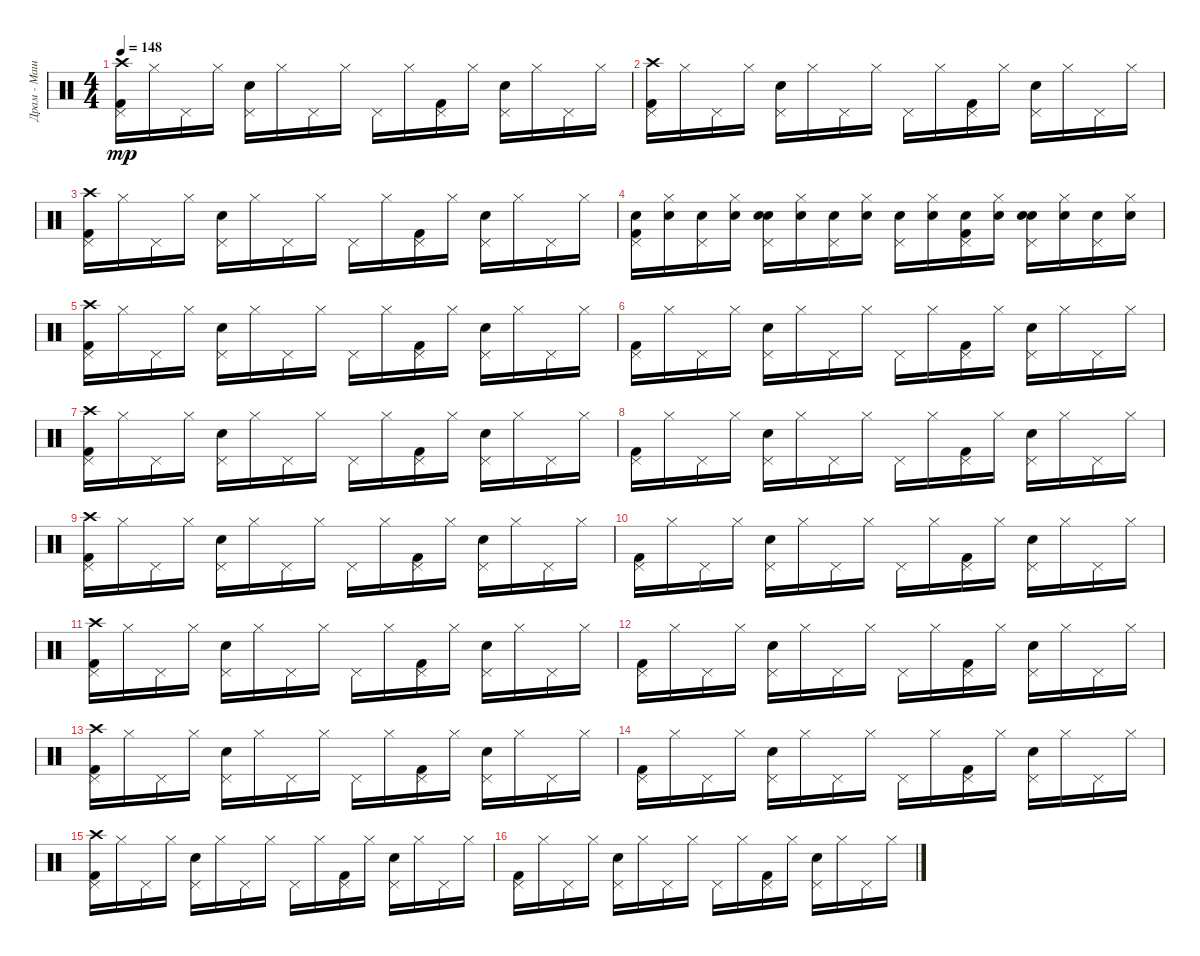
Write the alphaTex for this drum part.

\track ("Драм - Машина 2" "Драм - Маш") {instrument percussion}
\staff {score}
\articulation defaults
\ts (4 4)
\tempo 148
\clef neutral
\ks c
("Kick (hit) 2" "Crash high (hit)" "Pedal Hi-Hat (hit)").16{dy mp} "Hi-Hat (closed)".16 "Pedal Hi-Hat (hit)".16 "Hi-Hat (closed)".16 ("Snare (hit) 2" "Pedal Hi-Hat (hit)").16 "Hi-Hat (closed)".16 "Pedal Hi-Hat (hit)".16 "Hi-Hat (closed)".16 "Pedal Hi-Hat (hit)".16 "Hi-Hat (closed)".16 ("Kick (hit) 2" "Pedal Hi-Hat (hit)").16 "Hi-Hat (closed)".16 ("Snare (hit) 2" "Pedal Hi-Hat (hit)").16 "Hi-Hat (closed)".16 "Pedal Hi-Hat (hit)".16 "Hi-Hat (closed)".16 |
("Kick (hit) 2" "Crash high (hit)" "Pedal Hi-Hat (hit)").16 "Hi-Hat (closed)".16 "Pedal Hi-Hat (hit)".16 "Hi-Hat (closed)".16 ("Snare (hit) 2" "Pedal Hi-Hat (hit)").16 "Hi-Hat (closed)".16 "Pedal Hi-Hat (hit)".16 "Hi-Hat (closed)".16 "Pedal Hi-Hat (hit)".16 "Hi-Hat (closed)".16 ("Kick (hit) 2" "Pedal Hi-Hat (hit)").16 "Hi-Hat (closed)".16 ("Snare (hit) 2" "Pedal Hi-Hat (hit)").16 "Hi-Hat (closed)".16 "Pedal Hi-Hat (hit)".16 "Hi-Hat (closed)".16 |
("Kick (hit) 2" "Crash high (hit)" "Pedal Hi-Hat (hit)").16 "Hi-Hat (closed)".16 "Pedal Hi-Hat (hit)".16 "Hi-Hat (closed)".16 ("Snare (hit) 2" "Pedal Hi-Hat (hit)").16 "Hi-Hat (closed)".16 "Pedal Hi-Hat (hit)".16 "Hi-Hat (closed)".16 "Pedal Hi-Hat (hit)".16 "Hi-Hat (closed)".16 ("Kick (hit) 2" "Pedal Hi-Hat (hit)").16 "Hi-Hat (closed)".16 ("Snare (hit) 2" "Pedal Hi-Hat (hit)").16 "Hi-Hat (closed)".16 "Pedal Hi-Hat (hit)".16 "Hi-Hat (closed)".16 |
("Kick (hit) 2" "Snare (hit) 2" "Pedal Hi-Hat (hit)").16 ("Snare (hit) 2" "Hi-Hat (closed)").16 ("Snare (hit) 2" "Pedal Hi-Hat (hit)").16 ("Snare (hit) 2" "Hi-Hat (closed)").16 ("Snare (hit) 2" "Snare (hit) 2" "Pedal Hi-Hat (hit)").16 ("Snare (hit) 2" "Hi-Hat (closed)").16 ("Snare (hit) 2" "Pedal Hi-Hat (hit)").16 ("Snare (hit) 2" "Hi-Hat (closed)").16 ("Snare (hit) 2" "Pedal Hi-Hat (hit)").16 ("Snare (hit) 2" "Hi-Hat (closed)").16 ("Kick (hit) 2" "Snare (hit) 2" "Pedal Hi-Hat (hit)").16 ("Snare (hit) 2" "Hi-Hat (closed)").16 ("Snare (hit) 2" "Snare (hit) 2" "Pedal Hi-Hat (hit)").16 ("Snare (hit) 2" "Hi-Hat (closed)").16 ("Snare (hit) 2" "Pedal Hi-Hat (hit)").16 ("Snare (hit) 2" "Hi-Hat (closed)").16 |
("Kick (hit) 2" "Crash high (hit)" "Pedal Hi-Hat (hit)").16 "Hi-Hat (closed)".16 "Pedal Hi-Hat (hit)".16 "Hi-Hat (closed)".16 ("Snare (hit) 2" "Pedal Hi-Hat (hit)").16 "Hi-Hat (closed)".16 "Pedal Hi-Hat (hit)".16 "Hi-Hat (closed)".16 "Pedal Hi-Hat (hit)".16 "Hi-Hat (closed)".16 ("Kick (hit) 2" "Pedal Hi-Hat (hit)").16 "Hi-Hat (closed)".16 ("Snare (hit) 2" "Pedal Hi-Hat (hit)").16 "Hi-Hat (closed)".16 "Pedal Hi-Hat (hit)".16 "Hi-Hat (closed)".16 |
("Kick (hit) 2" "Pedal Hi-Hat (hit)").16 "Hi-Hat (closed)".16 "Pedal Hi-Hat (hit)".16 "Hi-Hat (closed)".16 ("Snare (hit) 2" "Pedal Hi-Hat (hit)").16 "Hi-Hat (closed)".16 "Pedal Hi-Hat (hit)".16 "Hi-Hat (closed)".16 "Pedal Hi-Hat (hit)".16 "Hi-Hat (closed)".16 ("Kick (hit) 2" "Pedal Hi-Hat (hit)").16 "Hi-Hat (closed)".16 ("Snare (hit) 2" "Pedal Hi-Hat (hit)").16 "Hi-Hat (closed)".16 "Pedal Hi-Hat (hit)".16 "Hi-Hat (closed)".16 |
("Kick (hit) 2" "Crash high (hit)" "Pedal Hi-Hat (hit)").16 "Hi-Hat (closed)".16 "Pedal Hi-Hat (hit)".16 "Hi-Hat (closed)".16 ("Snare (hit) 2" "Pedal Hi-Hat (hit)").16 "Hi-Hat (closed)".16 "Pedal Hi-Hat (hit)".16 "Hi-Hat (closed)".16 "Pedal Hi-Hat (hit)".16 "Hi-Hat (closed)".16 ("Kick (hit) 2" "Pedal Hi-Hat (hit)").16 "Hi-Hat (closed)".16 ("Snare (hit) 2" "Pedal Hi-Hat (hit)").16 "Hi-Hat (closed)".16 "Pedal Hi-Hat (hit)".16 "Hi-Hat (closed)".16 |
("Kick (hit) 2" "Pedal Hi-Hat (hit)").16 "Hi-Hat (closed)".16 "Pedal Hi-Hat (hit)".16 "Hi-Hat (closed)".16 ("Snare (hit) 2" "Pedal Hi-Hat (hit)").16 "Hi-Hat (closed)".16 "Pedal Hi-Hat (hit)".16 "Hi-Hat (closed)".16 "Pedal Hi-Hat (hit)".16 "Hi-Hat (closed)".16 ("Kick (hit) 2" "Pedal Hi-Hat (hit)").16 "Hi-Hat (closed)".16 ("Snare (hit) 2" "Pedal Hi-Hat (hit)").16 "Hi-Hat (closed)".16 "Pedal Hi-Hat (hit)".16 "Hi-Hat (closed)".16 |
("Crash high (hit)" "Kick (hit) 2" "Pedal Hi-Hat (hit)").16 "Hi-Hat (closed)".16 "Pedal Hi-Hat (hit)".16 "Hi-Hat (closed)".16 ("Snare (hit) 2" "Pedal Hi-Hat (hit)").16 "Hi-Hat (closed)".16 "Pedal Hi-Hat (hit)".16 "Hi-Hat (closed)".16 "Pedal Hi-Hat (hit)".16 "Hi-Hat (closed)".16 ("Kick (hit) 2" "Pedal Hi-Hat (hit)").16 "Hi-Hat (closed)".16 ("Snare (hit) 2" "Pedal Hi-Hat (hit)").16 "Hi-Hat (closed)".16 "Pedal Hi-Hat (hit)".16 "Hi-Hat (closed)".16 |
("Kick (hit) 2" "Pedal Hi-Hat (hit)").16 "Hi-Hat (closed)".16 "Pedal Hi-Hat (hit)".16 "Hi-Hat (closed)".16 ("Snare (hit) 2" "Pedal Hi-Hat (hit)").16 "Hi-Hat (closed)".16 "Pedal Hi-Hat (hit)".16 "Hi-Hat (closed)".16 "Pedal Hi-Hat (hit)".16 "Hi-Hat (closed)".16 ("Kick (hit) 2" "Pedal Hi-Hat (hit)").16 "Hi-Hat (closed)".16 ("Snare (hit) 2" "Pedal Hi-Hat (hit)").16 "Hi-Hat (closed)".16 "Pedal Hi-Hat (hit)".16 "Hi-Hat (closed)".16 |
("Crash high (hit)" "Kick (hit) 2" "Pedal Hi-Hat (hit)").16 "Hi-Hat (closed)".16 "Pedal Hi-Hat (hit)".16 "Hi-Hat (closed)".16 ("Snare (hit) 2" "Pedal Hi-Hat (hit)").16 "Hi-Hat (closed)".16 "Pedal Hi-Hat (hit)".16 "Hi-Hat (closed)".16 "Pedal Hi-Hat (hit)".16 "Hi-Hat (closed)".16 ("Kick (hit) 2" "Pedal Hi-Hat (hit)").16 "Hi-Hat (closed)".16 ("Snare (hit) 2" "Pedal Hi-Hat (hit)").16 "Hi-Hat (closed)".16 "Pedal Hi-Hat (hit)".16 "Hi-Hat (closed)".16 |
("Kick (hit) 2" "Pedal Hi-Hat (hit)").16 "Hi-Hat (closed)".16 "Pedal Hi-Hat (hit)".16 "Hi-Hat (closed)".16 ("Snare (hit) 2" "Pedal Hi-Hat (hit)").16 "Hi-Hat (closed)".16 "Pedal Hi-Hat (hit)".16 "Hi-Hat (closed)".16 "Pedal Hi-Hat (hit)".16 "Hi-Hat (closed)".16 ("Kick (hit) 2" "Pedal Hi-Hat (hit)").16 "Hi-Hat (closed)".16 ("Snare (hit) 2" "Pedal Hi-Hat (hit)").16 "Hi-Hat (closed)".16 "Pedal Hi-Hat (hit)".16 "Hi-Hat (closed)".16 |
("Kick (hit) 2" "Crash high (hit)" "Pedal Hi-Hat (hit)").16 "Hi-Hat (closed)".16 "Pedal Hi-Hat (hit)".16 "Hi-Hat (closed)".16 ("Snare (hit) 2" "Pedal Hi-Hat (hit)").16 "Hi-Hat (closed)".16 "Pedal Hi-Hat (hit)".16 "Hi-Hat (closed)".16 "Pedal Hi-Hat (hit)".16 "Hi-Hat (closed)".16 ("Kick (hit) 2" "Pedal Hi-Hat (hit)").16 "Hi-Hat (closed)".16 ("Snare (hit) 2" "Pedal Hi-Hat (hit)").16 "Hi-Hat (closed)".16 "Pedal Hi-Hat (hit)".16 "Hi-Hat (closed)".16 |
("Kick (hit) 2" "Pedal Hi-Hat (hit)").16 "Hi-Hat (closed)".16 "Pedal Hi-Hat (hit)".16 "Hi-Hat (closed)".16 ("Snare (hit) 2" "Pedal Hi-Hat (hit)").16 "Hi-Hat (closed)".16 "Pedal Hi-Hat (hit)".16 "Hi-Hat (closed)".16 "Pedal Hi-Hat (hit)".16 "Hi-Hat (closed)".16 ("Kick (hit) 2" "Pedal Hi-Hat (hit)").16 "Hi-Hat (closed)".16 ("Snare (hit) 2" "Pedal Hi-Hat (hit)").16 "Hi-Hat (closed)".16 "Pedal Hi-Hat (hit)".16 "Hi-Hat (closed)".16 |
("Kick (hit) 2" "Crash high (hit)" "Pedal Hi-Hat (hit)").16 "Hi-Hat (closed)".16 "Pedal Hi-Hat (hit)".16 "Hi-Hat (closed)".16 ("Snare (hit) 2" "Pedal Hi-Hat (hit)").16 "Hi-Hat (closed)".16 "Pedal Hi-Hat (hit)".16 "Hi-Hat (closed)".16 "Pedal Hi-Hat (hit)".16 "Hi-Hat (closed)".16 ("Kick (hit) 2" "Pedal Hi-Hat (hit)").16 "Hi-Hat (closed)".16 ("Snare (hit) 2" "Pedal Hi-Hat (hit)").16 "Hi-Hat (closed)".16 "Pedal Hi-Hat (hit)".16 "Hi-Hat (closed)".16 |
("Kick (hit) 2" "Pedal Hi-Hat (hit)").16 "Hi-Hat (closed)".16 "Pedal Hi-Hat (hit)".16 "Hi-Hat (closed)".16 ("Snare (hit) 2" "Pedal Hi-Hat (hit)").16 "Hi-Hat (closed)".16 "Pedal Hi-Hat (hit)".16 "Hi-Hat (closed)".16 "Pedal Hi-Hat (hit)".16 "Hi-Hat (closed)".16 ("Kick (hit) 2" "Pedal Hi-Hat (hit)").16 "Hi-Hat (closed)".16 ("Snare (hit) 2" "Pedal Hi-Hat (hit)").16 "Hi-Hat (closed)".16 "Pedal Hi-Hat (hit)".16 "Hi-Hat (closed)".16
